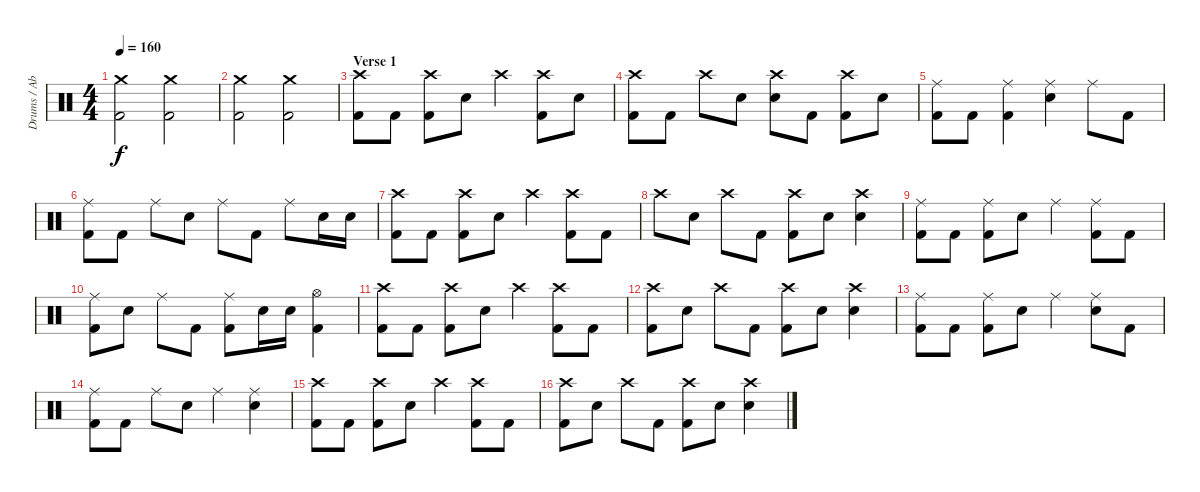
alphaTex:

\track ("Drums / Abe Cunningham" "Drums / Ab") {instrument percussion}
\staff {score}
\articulation defaults
\ts (4 4)
\tempo 160
\clef neutral
\ks c
("Crash medium (hit)" "Kick (hit) 2").2{dy f} ("Crash medium (hit)" "Kick (hit) 2").2 |
("Crash medium (hit)" "Kick (hit) 2").2 ("Crash medium (hit)" "Kick (hit) 2").2 |
\section ("" "Verse 1")
("Crash high (hit)" "Kick (hit) 2").8 "Kick (hit) 2".8 ("Crash high (hit)" "Kick (hit) 2").8 "Electric Snare (hit)".8 "Crash high (hit)".4 ("Crash high (hit)" "Kick (hit) 2").8 "Electric Snare (hit)".8 |
("Crash high (hit)" "Kick (hit) 2").8 "Kick (hit) 2".8 "Crash high (hit)".8 "Electric Snare (hit)".8 ("Crash high (hit)" "Electric Snare (hit)").8 "Kick (hit) 2".8 ("Crash high (hit)" "Kick (hit) 2").8 "Electric Snare (hit)".8 |
("Ride (middle)" "Kick (hit) 2").8 "Kick (hit) 2".8 ("Ride (middle)" "Kick (hit) 2").4 ("Ride (middle)" "Electric Snare (hit)").4 "Ride (middle)".8 "Kick (hit) 2".8 |
("Ride (middle)" "Kick (hit) 2").8 "Kick (hit) 2".8 "Ride (middle)".8 "Electric Snare (hit)".8 "Ride (middle)".8 "Kick (hit) 2".8 "Ride (middle)".8 "Electric Snare (hit)".16 "Electric Snare (hit)".16 |
("Crash high (hit)" "Kick (hit) 2").8 "Kick (hit) 2".8 ("Crash high (hit)" "Kick (hit) 2").8 "Electric Snare (hit)".8 "Crash high (hit)".4 ("Crash high (hit)" "Kick (hit) 2").8 "Kick (hit) 2".8 |
"Crash high (hit)".8 "Electric Snare (hit)".8 "Crash high (hit)".8 "Kick (hit) 2".8 ("Crash high (hit)" "Kick (hit) 2").8 "Electric Snare (hit)".8 ("Crash high (hit)" "Electric Snare (hit)").4 |
("Ride (middle)" "Kick (hit) 2").8 "Kick (hit) 2".8 ("Ride (middle)" "Kick (hit) 2").8 "Electric Snare (hit)".8 "Ride (middle)".4 ("Ride (middle)" "Kick (hit) 2").8 "Kick (hit) 2".8 |
("Ride (middle)" "Kick (hit) 2").8 "Electric Snare (hit)".8 "Ride (middle)".8 "Kick (hit) 2".8 ("Ride (middle)" "Kick (hit) 2").8 "Electric Snare (hit)".16 "Electric Snare (hit)".16 ("Hi-Hat (open)" "Kick (hit) 2").4 |
("Crash high (hit)" "Kick (hit) 2").8 "Kick (hit) 2".8 ("Crash high (hit)" "Kick (hit) 2").8 "Electric Snare (hit)".8 "Crash high (hit)".4 ("Crash high (hit)" "Kick (hit) 2").8 "Kick (hit) 2".8 |
("Crash high (hit)" "Kick (hit) 2").8 "Electric Snare (hit)".8 "Crash high (hit)".8 "Kick (hit) 2".8 ("Crash high (hit)" "Kick (hit) 2").8 "Electric Snare (hit)".8 ("Crash high (hit)" "Electric Snare (hit)").4 |
("Ride (middle)" "Kick (hit) 2").8 "Kick (hit) 2".8 ("Ride (middle)" "Kick (hit) 2").8 "Electric Snare (hit)".8 "Ride (middle)".4 ("Ride (middle)" "Electric Snare (hit)").8 "Kick (hit) 2".8 |
("Ride (middle)" "Kick (hit) 2").8 "Kick (hit) 2".8 "Ride (middle)".8 "Electric Snare (hit)".8 "Ride (middle)".4 ("Ride (middle)" "Electric Snare (hit)").4 |
("Crash high (hit)" "Kick (hit) 2").8 "Kick (hit) 2".8 ("Crash high (hit)" "Kick (hit) 2").8 "Electric Snare (hit)".8 "Crash high (hit)".4 ("Crash high (hit)" "Kick (hit) 2").8 "Kick (hit) 2".8 |
("Crash high (hit)" "Kick (hit) 2").8 "Electric Snare (hit)".8 "Crash high (hit)".8 "Kick (hit) 2".8 ("Crash high (hit)" "Kick (hit) 2").8 "Electric Snare (hit)".8 ("Crash high (hit)" "Electric Snare (hit)").4
